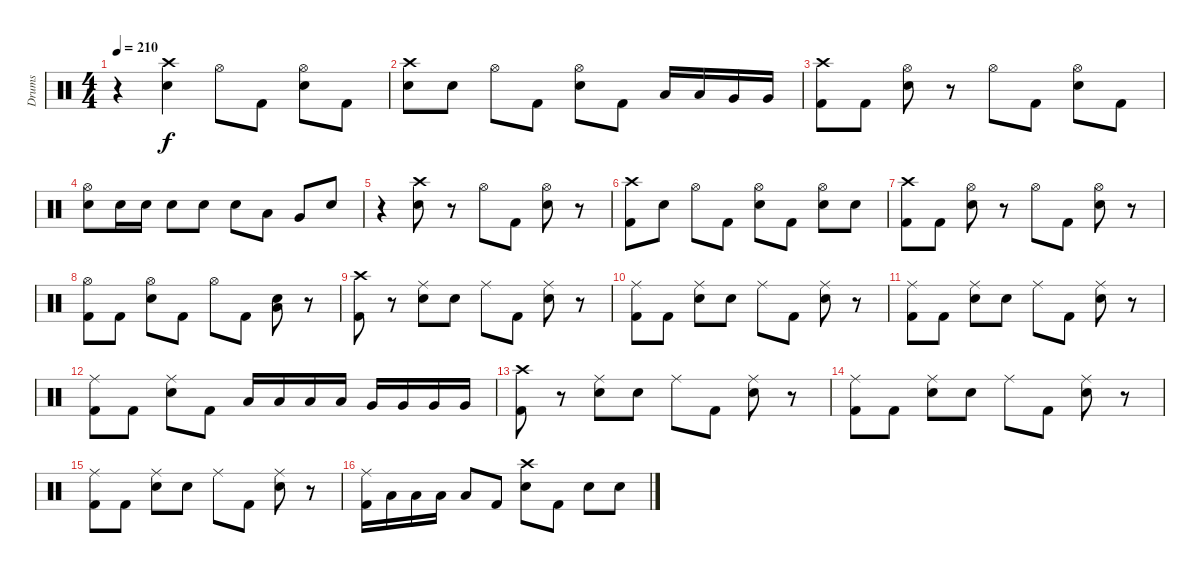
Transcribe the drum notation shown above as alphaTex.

\track ("Drums" "Drums") {instrument percussion}
\staff {score}
\articulation defaults
\ts (4 4)
\tempo 210
\clef neutral
\ks c
r.4{dy f} ("Crash high (hit)" "Electric Snare (hit)").4 "Hi-Hat (open)".8 "Kick (hit) 2".8 ("Hi-Hat (open)" "Electric Snare (hit)").8 "Kick (hit) 2".8 |
("Crash high (hit)" "Electric Snare (hit)").8 "Electric Snare (hit)".8 "Hi-Hat (open)".8 "Kick (hit) 2".8 ("Hi-Hat (open)" "Electric Snare (hit)").8 "Kick (hit) 2".8 "Low Tom (hit)".16 "Low Tom (hit)".16 "Very Low Tom (hit)".16 "Very Low Tom (hit)".16 |
("Crash high (hit)" "Kick (hit) 2").8 "Kick (hit) 2".8 ("Hi-Hat (open)" "Electric Snare (hit)").8 r.8 "Hi-Hat (open)".8 "Kick (hit) 2".8 ("Hi-Hat (open)" "Electric Snare (hit)").8 "Kick (hit) 2".8 |
("Hi-Hat (open)" "Electric Snare (hit)").8 "Electric Snare (hit)".16 "Electric Snare (hit)".16 "Electric Snare (hit)".8 "Electric Snare (hit)".8 "Electric Snare (hit)".8 "Low Tom (hit)".8 "Very Low Tom (hit)".8 "Electric Snare (hit)".8 |
r.4 ("Crash high (hit)" "Electric Snare (hit)").8 r.8 "Hi-Hat (open)".8 "Kick (hit) 2".8 ("Hi-Hat (open)" "Electric Snare (hit)").8 r.8 |
("Crash high (hit)" "Kick (hit) 2").8 "Electric Snare (hit)".8 "Hi-Hat (open)".8 "Kick (hit) 2".8 ("Hi-Hat (open)" "Electric Snare (hit)").8 "Kick (hit) 2".8 ("Hi-Hat (open)" "Electric Snare (hit)").8 "Electric Snare (hit)".8 |
("Crash high (hit)" "Kick (hit) 2").8 "Kick (hit) 2".8 ("Hi-Hat (open)" "Electric Snare (hit)").8 r.8 "Hi-Hat (open)".8 "Kick (hit) 2".8 ("Hi-Hat (open)" "Electric Snare (hit)").8 r.8 |
("Hi-Hat (open)" "Kick (hit) 2").8 "Kick (hit) 2".8 ("Hi-Hat (open)" "Electric Snare (hit)").8 "Kick (hit) 2".8 "Hi-Hat (open)".8 "Kick (hit) 2".8 ("Electric Snare (hit)" "Low Tom (hit)").8 r.8 |
("Crash high (hit)" "Kick (hit) 2").8 r.8 ("Ride (middle)" "Electric Snare (hit)").8 "Electric Snare (hit)".8 "Ride (middle)".8 "Kick (hit) 2".8 ("Ride (middle)" "Electric Snare (hit)").8 r.8 |
("Ride (middle)" "Kick (hit) 2").8 "Kick (hit) 2".8 ("Ride (middle)" "Electric Snare (hit)").8 "Electric Snare (hit)".8 "Ride (middle)".8 "Kick (hit) 2".8 ("Ride (middle)" "Electric Snare (hit)").8 r.8 |
("Ride (middle)" "Kick (hit) 2").8 "Kick (hit) 2".8 ("Ride (middle)" "Electric Snare (hit)").8 "Electric Snare (hit)".8 "Ride (middle)".8 "Kick (hit) 2".8 ("Ride (middle)" "Electric Snare (hit)").8 r.8 |
("Ride (middle)" "Kick (hit) 2").8 "Kick (hit) 2".8 ("Ride (middle)" "Electric Snare (hit)").8 "Kick (hit) 2".8 "Low Tom (hit)".16 "Low Tom (hit)".16 "Low Tom (hit)".16 "Low Tom (hit)".16 "Very Low Tom (hit)".16 "Very Low Tom (hit)".16 "Very Low Tom (hit)".16 "Very Low Tom (hit)".16 |
("Crash high (hit)" "Kick (hit) 2").8 r.8 ("Ride (middle)" "Electric Snare (hit)").8 "Electric Snare (hit)".8 "Ride (middle)".8 "Kick (hit) 2".8 ("Ride (middle)" "Electric Snare (hit)").8 r.8 |
("Ride (middle)" "Kick (hit) 2").8 "Kick (hit) 2".8 ("Ride (middle)" "Electric Snare (hit)").8 "Electric Snare (hit)".8 "Ride (middle)".8 "Kick (hit) 2".8 ("Ride (middle)" "Electric Snare (hit)").8 r.8 |
("Ride (middle)" "Kick (hit) 2").8 "Kick (hit) 2".8 ("Ride (middle)" "Electric Snare (hit)").8 "Electric Snare (hit)".8 "Ride (middle)".8 "Kick (hit) 2".8 ("Ride (middle)" "Electric Snare (hit)").8 r.8 |
("Ride (middle)" "Kick (hit) 2").16 "Low Tom (hit)".16 "Low Tom (hit)".16 "Low Tom (hit)".16 "Low Tom (hit)".8 "Kick (hit) 2".8 ("Crash high (hit)" "Electric Snare (hit)").8 "Kick (hit) 2".8 "Electric Snare (hit)".8 "Electric Snare (hit)".8
